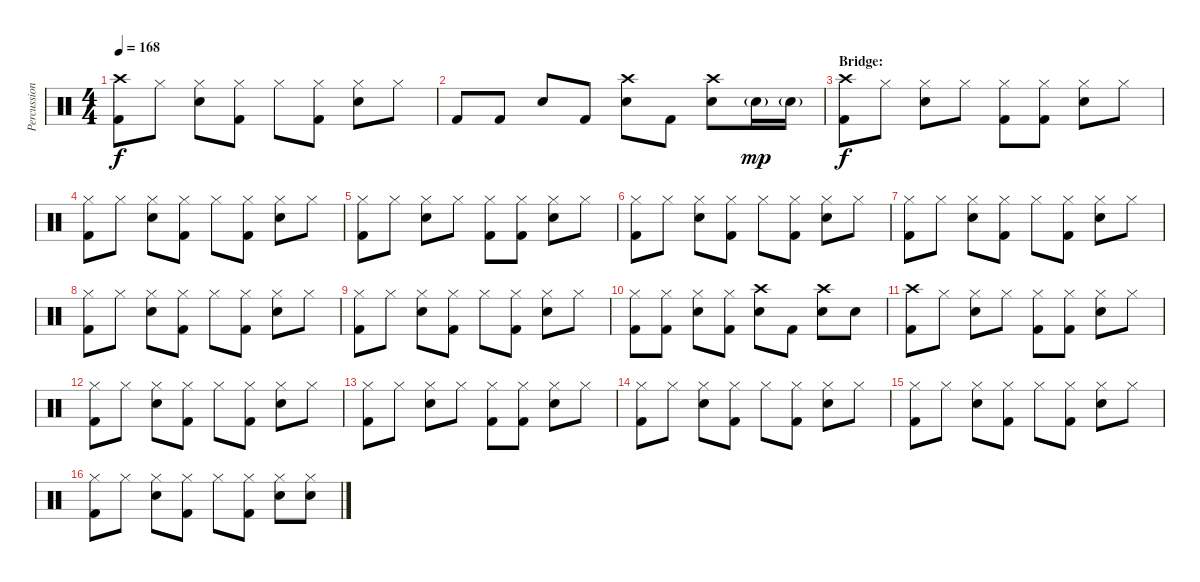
\track ("Percussion" "Percussion") {instrument percussion}
\staff {score}
\articulation defaults
\ts (4 4)
\tempo 168
\clef neutral
\ks c
("Crash high (hit)" "Kick (hit) 2").8{dy f} "Hi-Hat (closed)".8 ("Hi-Hat (closed)" "Snare (hit) 2").8 ("Hi-Hat (closed)" "Kick (hit) 2").8 "Hi-Hat (closed)".8 ("Hi-Hat (closed)" "Kick (hit) 2").8 ("Hi-Hat (closed)" "Snare (hit) 2").8 "Hi-Hat (closed)".8 |
"Kick (hit) 2".8 "Kick (hit) 2".8 "Snare (hit) 2".8 "Kick (hit) 2".8 ("Crash high (hit)" "Snare (hit) 2").8 "Kick (hit) 2".8 ("Crash high (hit)" "Snare (hit) 2").8 "Snare (hit) 2"{g}.16{dy mp} "Snare (hit) 2"{g}.16 |
\section ("" "Bridge:")
("Crash high (hit)" "Kick (hit) 2").8{dy f} "Hi-Hat (closed)".8 ("Hi-Hat (closed)" "Snare (hit) 2").8 "Hi-Hat (closed)".8 ("Hi-Hat (closed)" "Kick (hit) 2").8 ("Hi-Hat (closed)" "Kick (hit) 2").8 ("Hi-Hat (closed)" "Snare (hit) 2").8 "Hi-Hat (closed)".8 |
("Hi-Hat (closed)" "Kick (hit) 2").8 "Hi-Hat (closed)".8 ("Hi-Hat (closed)" "Snare (hit) 2").8 ("Hi-Hat (closed)" "Kick (hit) 2").8 "Hi-Hat (closed)".8 ("Hi-Hat (closed)" "Kick (hit) 2").8 ("Hi-Hat (closed)" "Snare (hit) 2").8 "Hi-Hat (closed)".8 |
("Hi-Hat (closed)" "Kick (hit) 2").8 "Hi-Hat (closed)".8 ("Hi-Hat (closed)" "Snare (hit) 2").8 "Hi-Hat (closed)".8 ("Hi-Hat (closed)" "Kick (hit) 2").8 ("Hi-Hat (closed)" "Kick (hit) 2").8 ("Hi-Hat (closed)" "Snare (hit) 2").8 "Hi-Hat (closed)".8 |
("Hi-Hat (closed)" "Kick (hit) 2").8 "Hi-Hat (closed)".8 ("Hi-Hat (closed)" "Snare (hit) 2").8 ("Hi-Hat (closed)" "Kick (hit) 2").8 "Hi-Hat (closed)".8 ("Hi-Hat (closed)" "Kick (hit) 2").8 ("Hi-Hat (closed)" "Snare (hit) 2").8 "Hi-Hat (closed)".8 |
("Hi-Hat (closed)" "Kick (hit) 2").8 "Hi-Hat (closed)".8 ("Hi-Hat (closed)" "Snare (hit) 2").8 ("Hi-Hat (closed)" "Kick (hit) 2").8 "Hi-Hat (closed)".8 ("Hi-Hat (closed)" "Kick (hit) 2").8 ("Hi-Hat (closed)" "Snare (hit) 2").8 "Hi-Hat (closed)".8 |
("Hi-Hat (closed)" "Kick (hit) 2").8 "Hi-Hat (closed)".8 ("Hi-Hat (closed)" "Snare (hit) 2").8 ("Hi-Hat (closed)" "Kick (hit) 2").8 "Hi-Hat (closed)".8 ("Hi-Hat (closed)" "Kick (hit) 2").8 ("Hi-Hat (closed)" "Snare (hit) 2").8 "Hi-Hat (closed)".8 |
("Hi-Hat (closed)" "Kick (hit) 2").8 "Hi-Hat (closed)".8 ("Hi-Hat (closed)" "Snare (hit) 2").8 ("Hi-Hat (closed)" "Kick (hit) 2").8 "Hi-Hat (closed)".8 ("Hi-Hat (closed)" "Kick (hit) 2").8 ("Hi-Hat (closed)" "Snare (hit) 2").8 "Hi-Hat (closed)".8 |
("Hi-Hat (closed)" "Kick (hit) 2").8 ("Hi-Hat (closed)" "Kick (hit) 2").8 ("Hi-Hat (closed)" "Snare (hit) 2").8 ("Hi-Hat (closed)" "Kick (hit) 2").8 ("Crash high (hit)" "Snare (hit) 2").8 "Kick (hit) 2".8 ("Crash high (hit)" "Snare (hit) 2").8 "Snare (hit) 2".8 |
("Crash high (hit)" "Kick (hit) 2").8 "Hi-Hat (closed)".8 ("Hi-Hat (closed)" "Snare (hit) 2").8 "Hi-Hat (closed)".8 ("Hi-Hat (closed)" "Kick (hit) 2").8 ("Hi-Hat (closed)" "Kick (hit) 2").8 ("Hi-Hat (closed)" "Snare (hit) 2").8 "Hi-Hat (closed)".8 |
("Hi-Hat (closed)" "Kick (hit) 2").8 "Hi-Hat (closed)".8 ("Hi-Hat (closed)" "Snare (hit) 2").8 ("Hi-Hat (closed)" "Kick (hit) 2").8 "Hi-Hat (closed)".8 ("Hi-Hat (closed)" "Kick (hit) 2").8 ("Hi-Hat (closed)" "Snare (hit) 2").8 "Hi-Hat (closed)".8 |
("Hi-Hat (closed)" "Kick (hit) 2").8 "Hi-Hat (closed)".8 ("Hi-Hat (closed)" "Snare (hit) 2").8 "Hi-Hat (closed)".8 ("Hi-Hat (closed)" "Kick (hit) 2").8 ("Hi-Hat (closed)" "Kick (hit) 2").8 ("Hi-Hat (closed)" "Snare (hit) 2").8 "Hi-Hat (closed)".8 |
("Hi-Hat (closed)" "Kick (hit) 2").8 "Hi-Hat (closed)".8 ("Hi-Hat (closed)" "Snare (hit) 2").8 ("Hi-Hat (closed)" "Kick (hit) 2").8 "Hi-Hat (closed)".8 ("Hi-Hat (closed)" "Kick (hit) 2").8 ("Hi-Hat (closed)" "Snare (hit) 2").8 "Hi-Hat (closed)".8 |
("Hi-Hat (closed)" "Kick (hit) 2").8 "Hi-Hat (closed)".8 ("Hi-Hat (closed)" "Snare (hit) 2").8 ("Hi-Hat (closed)" "Kick (hit) 2").8 "Hi-Hat (closed)".8 ("Hi-Hat (closed)" "Kick (hit) 2").8 ("Hi-Hat (closed)" "Snare (hit) 2").8 "Hi-Hat (closed)".8 |
("Hi-Hat (closed)" "Kick (hit) 2").8 "Hi-Hat (closed)".8 ("Hi-Hat (closed)" "Snare (hit) 2").8 ("Hi-Hat (closed)" "Kick (hit) 2").8 "Hi-Hat (closed)".8 ("Hi-Hat (closed)" "Kick (hit) 2").8 ("Hi-Hat (closed)" "Snare (hit) 2").8 ("Hi-Hat (closed)" "Snare (hit) 2").8
